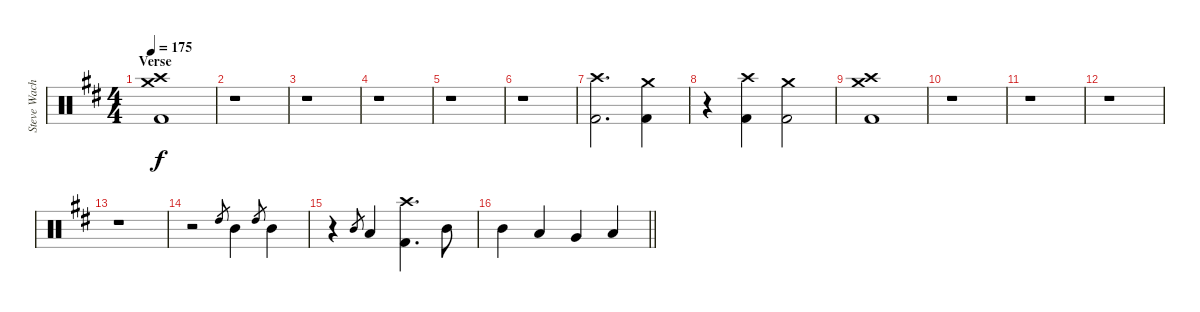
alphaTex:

\track ("Steve Wacholz" "Steve Wach") {instrument percussion}
\staff {score}
\articulation defaults
\ts (4 4)
\section ("" "Verse")
\tempo 175
\clef neutral
\ks bminor
("Crash high (hit)" "Crash medium (hit)" "Kick (hit) 2").1{dy f} |
r.1 |
r.1 |
r.1 |
r.1 |
r.1 |
("Crash high (hit)" "Kick (hit) 2").2{d} ("Crash medium (hit)" "Kick (hit) 2").4 |
r.4 ("Crash high (hit)" "Kick (hit) 2").4 ("Crash medium (hit)" "Kick (hit) 2").2 |
("Crash high (hit)" "Crash medium (hit)" "Kick (hit) 2").1 |
r.1 |
r.1 |
r.1 |
r.1 |
r.2 "High Tom (hit)".8{gr} "Mid Tom (hit)".4 "High Tom (hit)".8{gr} "Mid Tom (hit)".4 |
r.4 "Mid Tom (hit)".8{gr} "Low Tom (hit)".4 ("Crash high (hit)" "Kick (hit) 2").4{d} "Mid Tom (hit)".8 |
\barLineRight lightlight "Mid Tom (hit)".4 "Low Tom (hit)".4 "Very Low Tom (hit)".4 "Low Floor Tom (hit)".4
